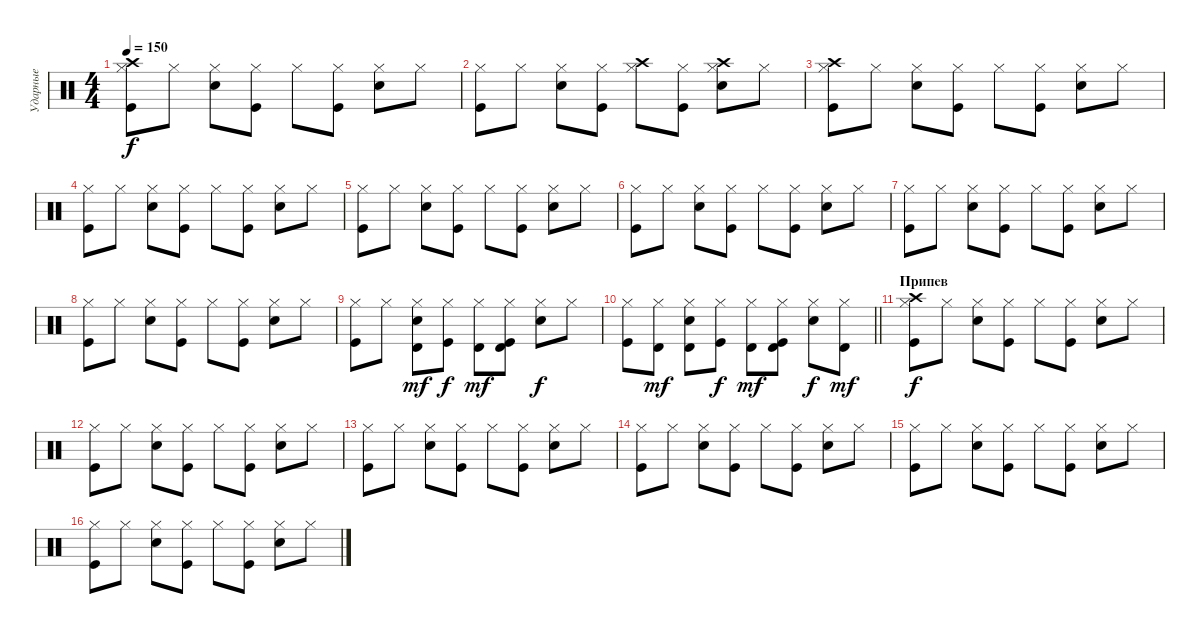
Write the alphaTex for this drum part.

\track ("Ударные" "Ударные") {instrument percussion}
\staff {score}
\articulation defaults
\ts (4 4)
\tempo 150
\clef neutral
\ks c
("Kick (hit)" "Hi-Hat (closed)" "Crash high (hit)").8{dy f} "Hi-Hat (closed)".8 ("Snare (hit) 2" "Hi-Hat (closed)").8 ("Kick (hit)" "Hi-Hat (closed)").8 "Hi-Hat (closed)".8 ("Kick (hit)" "Hi-Hat (closed)").8 ("Snare (hit) 2" "Hi-Hat (closed)").8 "Hi-Hat (closed)".8 |
("Kick (hit)" "Hi-Hat (closed)").8 "Hi-Hat (closed)".8 ("Snare (hit) 2" "Hi-Hat (closed)").8 ("Kick (hit)" "Hi-Hat (closed)").8 ("Hi-Hat (closed)" "Crash high (hit)").8 ("Kick (hit)" "Hi-Hat (closed)").8 ("Snare (hit) 2" "Hi-Hat (closed)" "Crash high (hit)").8 "Hi-Hat (closed)".8 |
("Kick (hit)" "Hi-Hat (closed)" "Crash high (hit)").8 "Hi-Hat (closed)".8 ("Snare (hit) 2" "Hi-Hat (closed)").8 ("Kick (hit)" "Hi-Hat (closed)").8 "Hi-Hat (closed)".8 ("Kick (hit)" "Hi-Hat (closed)").8 ("Snare (hit) 2" "Hi-Hat (closed)").8 "Hi-Hat (closed)".8 |
("Kick (hit)" "Hi-Hat (closed)").8 "Hi-Hat (closed)".8 ("Snare (hit) 2" "Hi-Hat (closed)").8 ("Kick (hit)" "Hi-Hat (closed)").8 "Hi-Hat (closed)".8 ("Kick (hit)" "Hi-Hat (closed)").8 ("Snare (hit) 2" "Hi-Hat (closed)").8 "Hi-Hat (closed)".8 |
("Kick (hit)" "Hi-Hat (closed)").8 "Hi-Hat (closed)".8 ("Snare (hit) 2" "Hi-Hat (closed)").8 ("Kick (hit)" "Hi-Hat (closed)").8 "Hi-Hat (closed)".8 ("Kick (hit)" "Hi-Hat (closed)").8 ("Snare (hit) 2" "Hi-Hat (closed)").8 "Hi-Hat (closed)".8 |
("Kick (hit)" "Hi-Hat (closed)").8 "Hi-Hat (closed)".8 ("Snare (hit) 2" "Hi-Hat (closed)").8 ("Kick (hit)" "Hi-Hat (closed)").8 "Hi-Hat (closed)".8 ("Kick (hit)" "Hi-Hat (closed)").8 ("Snare (hit) 2" "Hi-Hat (closed)").8 "Hi-Hat (closed)".8 |
("Kick (hit)" "Hi-Hat (closed)").8 "Hi-Hat (closed)".8 ("Snare (hit) 2" "Hi-Hat (closed)").8 ("Kick (hit)" "Hi-Hat (closed)").8 "Hi-Hat (closed)".8 ("Kick (hit)" "Hi-Hat (closed)").8 ("Snare (hit) 2" "Hi-Hat (closed)").8 "Hi-Hat (closed)".8 |
("Kick (hit)" "Hi-Hat (closed)").8 "Hi-Hat (closed)".8 ("Snare (hit) 2" "Hi-Hat (closed)").8 ("Kick (hit)" "Hi-Hat (closed)").8 "Hi-Hat (closed)".8 ("Kick (hit)" "Hi-Hat (closed)").8 ("Snare (hit) 2" "Hi-Hat (closed)").8 "Hi-Hat (closed)".8 |
("Kick (hit)" "Hi-Hat (closed)").8 "Hi-Hat (closed)".8 ("Snare (hit) 2" "Hi-Hat (closed)" "Timbale high (hit)").8{dy mf} ("Kick (hit)" "Hi-Hat (closed)").8{dy f} ("Hi-Hat (closed)" "Timbale high (hit)").8{dy mf} ("Kick (hit)" "Hi-Hat (closed)" "Timbale high (hit)").8 ("Snare (hit) 2" "Hi-Hat (closed)").8{dy f} "Hi-Hat (closed)".8 |
\barLineRight lightlight
("Kick (hit)" "Hi-Hat (closed)").8 ("Hi-Hat (closed)" "Timbale high (hit)").8{dy mf} ("Snare (hit) 2" "Hi-Hat (closed)" "Timbale high (hit)").8 ("Kick (hit)" "Hi-Hat (closed)").8{dy f} ("Hi-Hat (closed)" "Timbale high (hit)").8{dy mf} ("Kick (hit)" "Hi-Hat (closed)" "Timbale high (hit)").8 ("Snare (hit) 2" "Hi-Hat (closed)").8{dy f} ("Hi-Hat (closed)" "Timbale high (hit)").8{dy mf} |
\section ("" "Припев")
("Kick (hit)" "Hi-Hat (closed)" "Crash high (hit)").8{dy f} "Hi-Hat (closed)".8 ("Snare (hit) 2" "Hi-Hat (closed)").8 ("Kick (hit)" "Hi-Hat (closed)").8 "Hi-Hat (closed)".8 ("Kick (hit)" "Hi-Hat (closed)").8 ("Snare (hit) 2" "Hi-Hat (closed)").8 "Hi-Hat (closed)".8 |
("Kick (hit)" "Hi-Hat (closed)").8 "Hi-Hat (closed)".8 ("Snare (hit) 2" "Hi-Hat (closed)").8 ("Kick (hit)" "Hi-Hat (closed)").8 "Hi-Hat (closed)".8 ("Kick (hit)" "Hi-Hat (closed)").8 ("Snare (hit) 2" "Hi-Hat (closed)").8 "Hi-Hat (closed)".8 |
("Kick (hit)" "Hi-Hat (closed)").8 "Hi-Hat (closed)".8 ("Snare (hit) 2" "Hi-Hat (closed)").8 ("Kick (hit)" "Hi-Hat (closed)").8 "Hi-Hat (closed)".8 ("Kick (hit)" "Hi-Hat (closed)").8 ("Snare (hit) 2" "Hi-Hat (closed)").8 "Hi-Hat (closed)".8 |
("Kick (hit)" "Hi-Hat (closed)").8 "Hi-Hat (closed)".8 ("Snare (hit) 2" "Hi-Hat (closed)").8 ("Kick (hit)" "Hi-Hat (closed)").8 "Hi-Hat (closed)".8 ("Kick (hit)" "Hi-Hat (closed)").8 ("Snare (hit) 2" "Hi-Hat (closed)").8 "Hi-Hat (closed)".8 |
("Kick (hit)" "Hi-Hat (closed)").8 "Hi-Hat (closed)".8 ("Snare (hit) 2" "Hi-Hat (closed)").8 ("Kick (hit)" "Hi-Hat (closed)").8 "Hi-Hat (closed)".8 ("Kick (hit)" "Hi-Hat (closed)").8 ("Snare (hit) 2" "Hi-Hat (closed)").8 "Hi-Hat (closed)".8 |
("Kick (hit)" "Hi-Hat (closed)").8 "Hi-Hat (closed)".8 ("Snare (hit) 2" "Hi-Hat (closed)").8 ("Kick (hit)" "Hi-Hat (closed)").8 "Hi-Hat (closed)".8 ("Kick (hit)" "Hi-Hat (closed)").8 ("Snare (hit) 2" "Hi-Hat (closed)").8 "Hi-Hat (closed)".8
